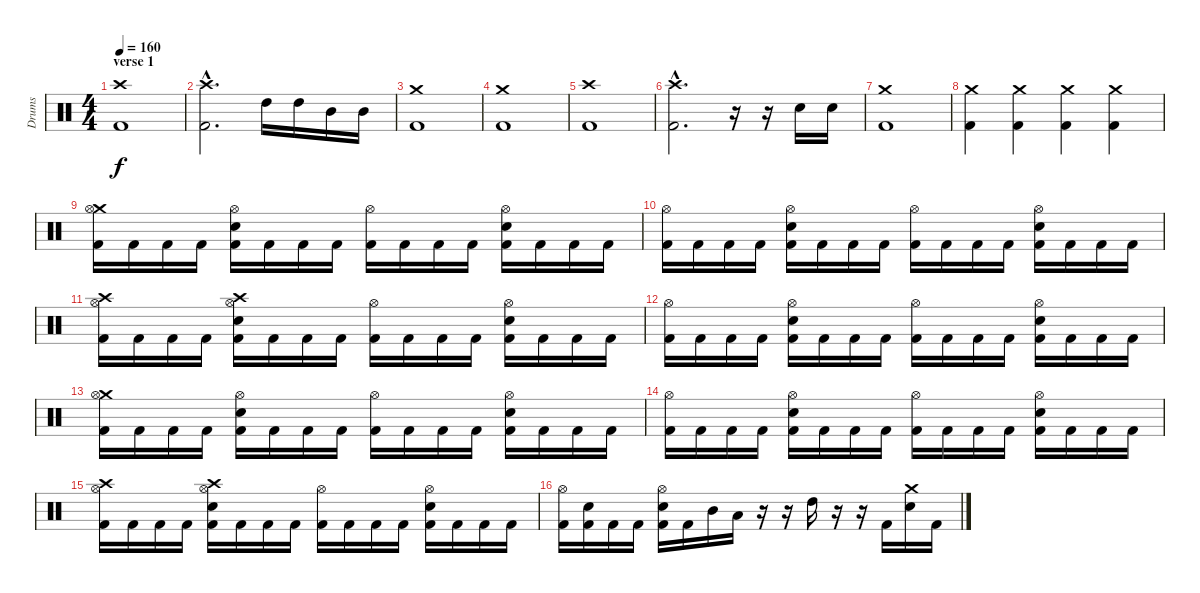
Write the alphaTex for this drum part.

\track ("Drums" "Drums") {instrument percussion}
\staff {score}
\articulation defaults
\ts (4 4)
\section ("" "verse 1")
\tempo 160
\clef neutral
\ks c
("Crash high (hit)" "Kick (hit) 2").1{dy f} |
("Crash high (hit)"{hac} "Kick (hit) 2"{hac}).2{d} "High Tom (hit)".16 "High Tom (hit)".16 "Mid Tom (hit)".16 "Mid Tom (hit)".16 |
("Crash medium (hit)" "Kick (hit) 2").1 |
("Crash medium (hit)" "Kick (hit) 2").1 |
("Crash high (hit)" "Kick (hit) 2").1 |
("Crash high (hit)"{hac} "Kick (hit) 2"{hac}).2{d} r.16 r.16 "Electric Snare (hit)".16 "Electric Snare (hit)".16 |
("Crash medium (hit)" "Kick (hit) 2").1 |
("Crash medium (hit)" "Kick (hit) 2").4 ("Crash medium (hit)" "Kick (hit) 2").4 ("Crash medium (hit)" "Kick (hit) 2").4 ("Crash medium (hit)" "Kick (hit) 2").4 |
("Crash medium (hit)" "Hi-Hat (open)" "Kick (hit) 2").16 "Kick (hit) 2".16 "Kick (hit) 2".16 "Kick (hit) 2".16 ("Hi-Hat (open)" "Electric Snare (hit)" "Kick (hit) 2").16 "Kick (hit) 2".16 "Kick (hit) 2".16 "Kick (hit) 2".16 ("Hi-Hat (open)" "Kick (hit) 2").16 "Kick (hit) 2".16 "Kick (hit) 2".16 "Kick (hit) 2".16 ("Hi-Hat (open)" "Electric Snare (hit)" "Kick (hit) 2").16 "Kick (hit) 2".16 "Kick (hit) 2".16 "Kick (hit) 2".16 |
("Hi-Hat (open)" "Kick (hit) 2").16 "Kick (hit) 2".16 "Kick (hit) 2".16 "Kick (hit) 2".16 ("Hi-Hat (open)" "Electric Snare (hit)" "Kick (hit) 2").16 "Kick (hit) 2".16 "Kick (hit) 2".16 "Kick (hit) 2".16 ("Hi-Hat (open)" "Kick (hit) 2").16 "Kick (hit) 2".16 "Kick (hit) 2".16 "Kick (hit) 2".16 ("Hi-Hat (open)" "Electric Snare (hit)" "Kick (hit) 2").16 "Kick (hit) 2".16 "Kick (hit) 2".16 "Kick (hit) 2".16 |
("Crash high (hit)" "Hi-Hat (open)" "Kick (hit) 2").16 "Kick (hit) 2".16 "Kick (hit) 2".16 "Kick (hit) 2".16 ("Crash high (hit)" "Hi-Hat (open)" "Electric Snare (hit)" "Kick (hit) 2").16 "Kick (hit) 2".16 "Kick (hit) 2".16 "Kick (hit) 2".16 ("Hi-Hat (open)" "Kick (hit) 2").16 "Kick (hit) 2".16 "Kick (hit) 2".16 "Kick (hit) 2".16 ("Hi-Hat (open)" "Electric Snare (hit)" "Kick (hit) 2").16 "Kick (hit) 2".16 "Kick (hit) 2".16 "Kick (hit) 2".16 |
("Hi-Hat (open)" "Kick (hit) 2").16 "Kick (hit) 2".16 "Kick (hit) 2".16 "Kick (hit) 2".16 ("Hi-Hat (open)" "Electric Snare (hit)" "Kick (hit) 2").16 "Kick (hit) 2".16 "Kick (hit) 2".16 "Kick (hit) 2".16 ("Hi-Hat (open)" "Kick (hit) 2").16 "Kick (hit) 2".16 "Kick (hit) 2".16 "Kick (hit) 2".16 ("Hi-Hat (open)" "Electric Snare (hit)" "Kick (hit) 2").16 "Kick (hit) 2".16 "Kick (hit) 2".16 "Kick (hit) 2".16 |
("Crash medium (hit)" "Hi-Hat (open)" "Kick (hit) 2").16 "Kick (hit) 2".16 "Kick (hit) 2".16 "Kick (hit) 2".16 ("Hi-Hat (open)" "Electric Snare (hit)" "Kick (hit) 2").16 "Kick (hit) 2".16 "Kick (hit) 2".16 "Kick (hit) 2".16 ("Hi-Hat (open)" "Kick (hit) 2").16 "Kick (hit) 2".16 "Kick (hit) 2".16 "Kick (hit) 2".16 ("Hi-Hat (open)" "Electric Snare (hit)" "Kick (hit) 2").16 "Kick (hit) 2".16 "Kick (hit) 2".16 "Kick (hit) 2".16 |
("Hi-Hat (open)" "Kick (hit) 2").16 "Kick (hit) 2".16 "Kick (hit) 2".16 "Kick (hit) 2".16 ("Hi-Hat (open)" "Electric Snare (hit)" "Kick (hit) 2").16 "Kick (hit) 2".16 "Kick (hit) 2".16 "Kick (hit) 2".16 ("Hi-Hat (open)" "Kick (hit) 2").16 "Kick (hit) 2".16 "Kick (hit) 2".16 "Kick (hit) 2".16 ("Hi-Hat (open)" "Electric Snare (hit)" "Kick (hit) 2").16 "Kick (hit) 2".16 "Kick (hit) 2".16 "Kick (hit) 2".16 |
("Crash high (hit)" "Hi-Hat (open)" "Kick (hit) 2").16 "Kick (hit) 2".16 "Kick (hit) 2".16 "Kick (hit) 2".16 ("Crash high (hit)" "Hi-Hat (open)" "Electric Snare (hit)" "Kick (hit) 2").16 "Kick (hit) 2".16 "Kick (hit) 2".16 "Kick (hit) 2".16 ("Hi-Hat (open)" "Kick (hit) 2").16 "Kick (hit) 2".16 "Kick (hit) 2".16 "Kick (hit) 2".16 ("Hi-Hat (open)" "Electric Snare (hit)" "Kick (hit) 2").16 "Kick (hit) 2".16 "Kick (hit) 2".16 "Kick (hit) 2".16 |
("Hi-Hat (open)" "Kick (hit) 2").16 ("Electric Snare (hit)" "Kick (hit) 2").16 "Kick (hit) 2".16 "Kick (hit) 2".16 ("Hi-Hat (open)" "Electric Snare (hit)" "Kick (hit) 2").16 "Kick (hit) 2".16 "Mid Tom (hit)".16 "Low Tom (hit)".16 r.16 r.16 "High Tom (hit)".16 r.16 r.16 "Kick (hit) 2".16 ("Crash medium (hit)" "Electric Snare (hit)").16 "Kick (hit) 2".16
